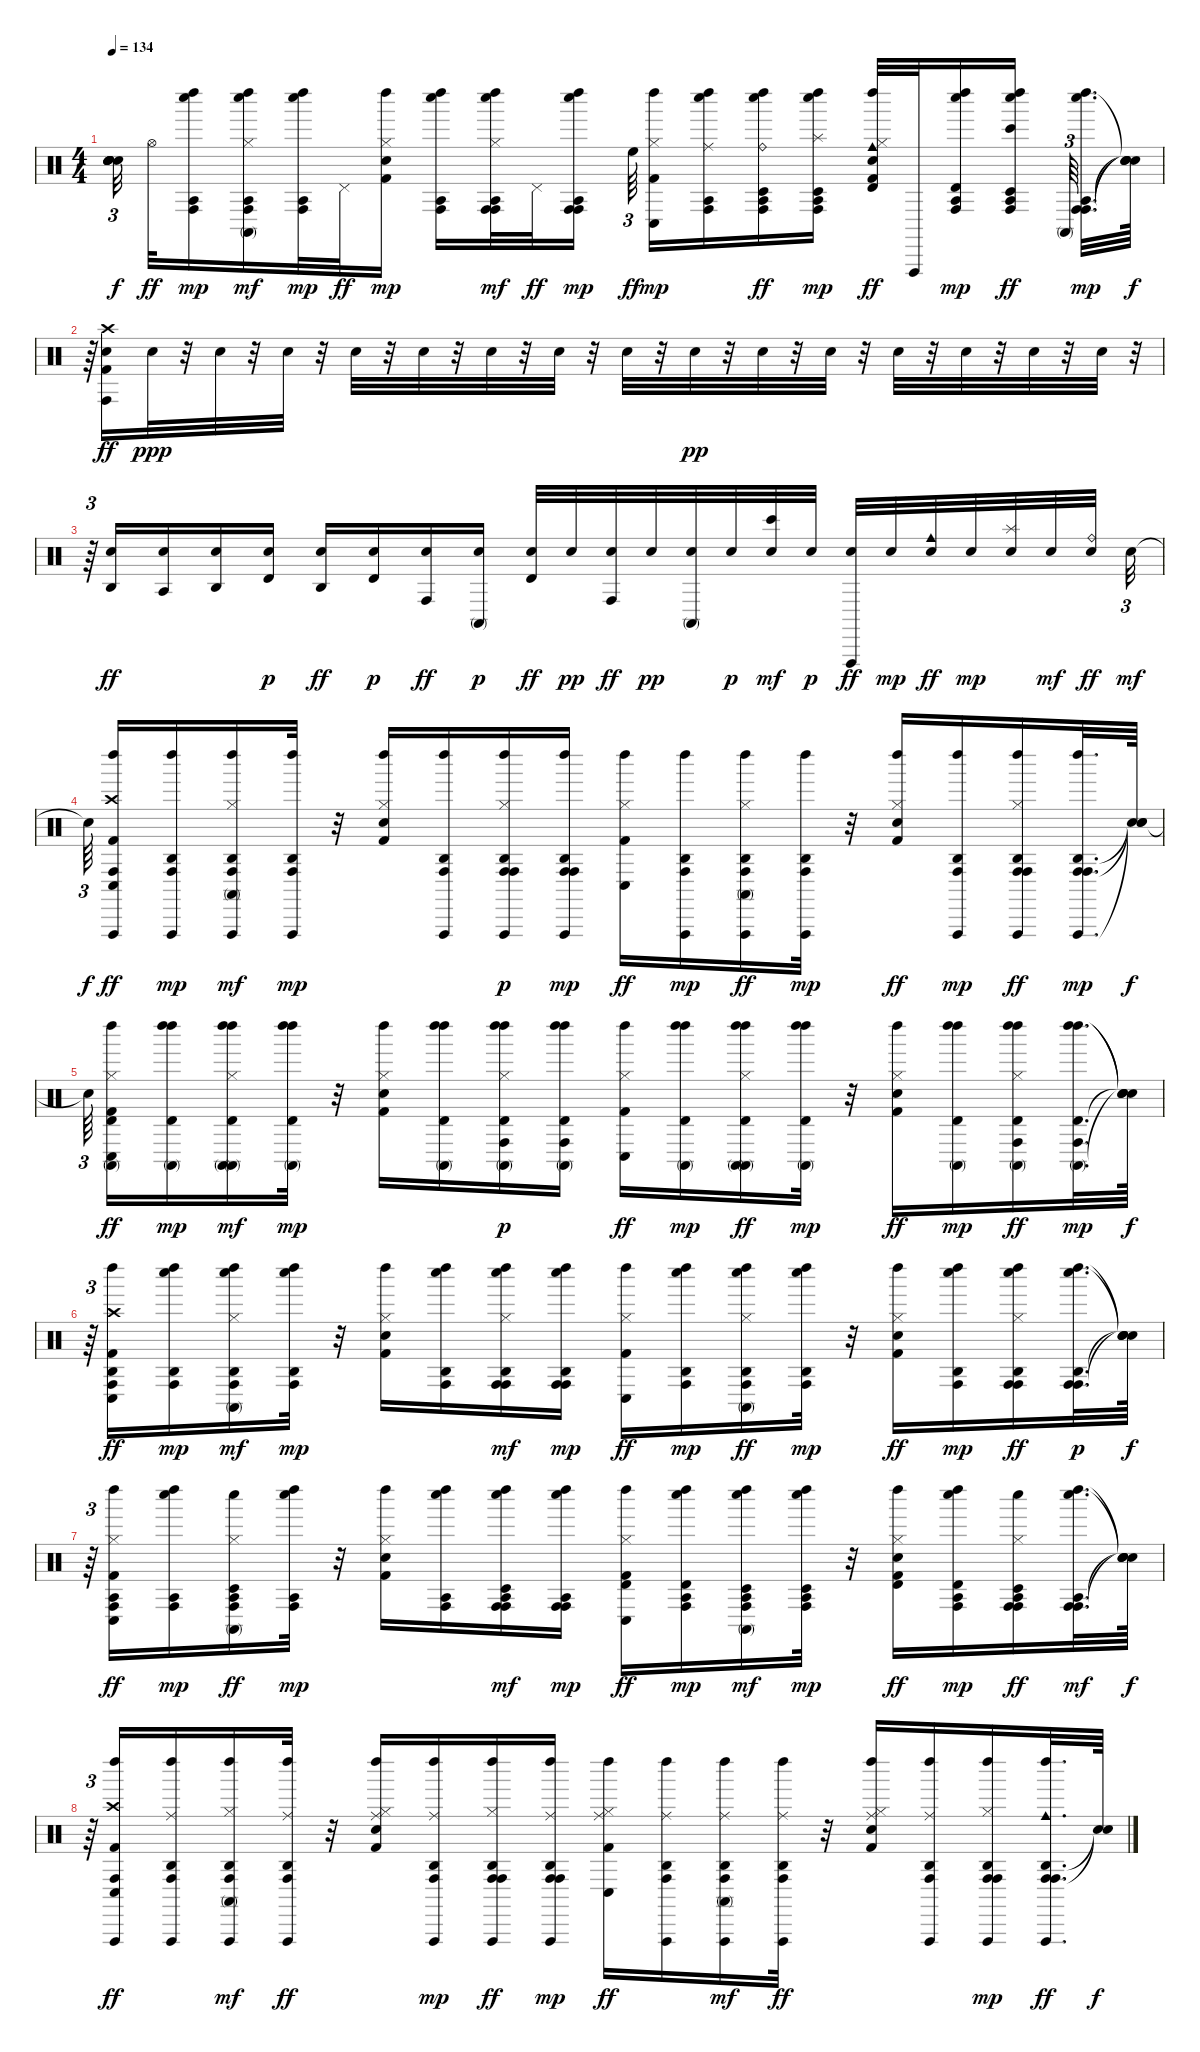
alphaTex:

\track "" {instrument percussion}
\staff {score}
\articulation defaults
\ts (4 4)
\tempo 134
\clef neutral
\ks c
("Snare (hit)"{t} "Snare (hit)"{t} "Snare (hit)"{t} "Snare (hit)"{t} "Snare (hit)"{t} "Snare (hit)"{t}).32{tu (3 2) dy f beam splitsecondary} "Hi-Hat (open)".32{dy ff} ("Whistle low (hit)" "Agogo tow (hit)" "Conga high (hit)" "Left Maraca (hit)").16{dy mp} ("Whistle low (hit)" "Agogo tow (hit)" "Conga high (hit)" "Hi-Hat (closed)" "Conga high (mute)" "Left Maraca (hit)").16{dy mf} ("Whistle low (hit)" "Agogo tow (hit)" "Conga high (hit)" "Left Maraca (hit)").32{dy mp} "Pedal Hi-Hat (hit)".32{dy ff} ("Kick (hit) 2" "Snare (hit) 2" "Hi-Hat (closed)" "Left Maraca (hit)").16{dy mp} ("Whistle low (hit)" "Agogo tow (hit)" "Conga high (hit)" "Left Maraca (hit)").16 ("Whistle low (hit)" "Agogo tow (hit)" "Conga high (hit)" "Hi-Hat (closed)" "Conga high (hit)" "Left Maraca (hit)").32{dy mf} "Pedal Hi-Hat (hit)".32{dy ff} ("Whistle low (hit)" "Agogo tow (hit)" "Conga high (hit)" "Left Maraca (hit)" "Conga high (hit)").16{dy mp beam splitsecondary} "High Floor Tom (hit)".64{tu (3 2) dy ff} ("Kick (hit) 2" "Hi-Hat (closed)" "Conga low (hit)" "Left Maraca (hit)").16{dy mp} ("Ride (middle)" "Whistle low (hit)" "Agogo tow (hit)" "Conga high (hit)" "Left Maraca (hit)").16 ("Ride (bell)" "Whistle low (hit)" "Agogo tow (hit)" "Conga high (hit)" "Left Maraca (hit)" "Timbale low (hit)").16{dy ff} ("Splash (hit)" "Whistle low (hit)" "Agogo tow (hit)" "Conga high (hit)" "Timbale low (hit)" "Left Maraca (hit)").16{dy mp} ("Cowbell medium (hit)" "Left Maraca (hit)" "Timbale high (hit)" "Hi-Hat (closed)" "Snare (hit) 2" "Kick (hit) 2").32{dy ff} "Vibraslap (hit)".32 ("Whistle low (hit)" "Agogo tow (hit)" "Conga high (hit)" "Timbale high (hit)" "Left Maraca (hit)").16{dy mp} ("Bongo High (hit)" "Whistle low (hit)" "Agogo tow (hit)" "Conga high (hit)" "Left Maraca (hit)" "Timbale low (hit)").16{dy ff beam splitsecondary} "Conga high (mute)".64{tu (3 2) beam splitsecondary} ("Whistle low (hit)" "Agogo tow (hit)" "Conga high (hit)" "Conga high (hit)" "Left Maraca (hit)").32{d dy mp} ("Snare (hit)"{t} "Snare (hit)"{t} "Snare (hit)"{t} "Snare (hit)"{t}).64{dy f} |
r.64{tu (3 2)} ("Crash high (hit)" "Snare (hit) 2" "Kick (hit) 2" "Conga high (hit)").16{dy ff} "Snare (hit) 2".32{dy ppp} r.32 "Snare (hit) 2".32 r.32 "Snare (hit) 2".32 r.32 "Snare (hit) 2".32 r.32 "Snare (hit) 2".32 r.32 "Snare (hit) 2".32 r.32 "Snare (hit) 2".32 r.32 "Snare (hit) 2".32 r.32 "Snare (hit) 2".32{dy pp} r.32 "Snare (hit) 2".32 r.32 "Snare (hit) 2".32 r.32 "Snare (hit) 2".32 r.32 "Snare (hit) 2".32 r.32 "Snare (hit) 2".32 r.32 "Snare (hit) 2".32 r.32{tu (3 2)} |
r.64{tu (3 2)} ("Snare (hit) 2" "Agogo high (hit)").16{dy ff} ("Snare (hit) 2" "Agogo tow (hit)").16 ("Snare (hit) 2" "Agogo high (hit)").16 ("Snare (hit) 2" "Timbale high (hit)").16{dy p} ("Snare (hit) 2" "Agogo high (hit)").16{dy ff} ("Snare (hit) 2" "Timbale high (hit)").16{dy p} ("Snare (hit) 2" "Conga high (hit)").16{dy ff} ("Snare (hit) 2" "Conga high (mute)").16{dy p} ("Snare (hit) 2" "Timbale high (hit)").32{dy ff} "Snare (hit) 2".32{dy pp} ("Snare (hit) 2" "Conga high (hit)").32{dy ff} "Snare (hit) 2".32{dy pp} ("Snare (hit) 2" "Conga high (mute)").32 "Snare (hit) 2".32{dy p} ("Snare (hit) 2" "Bongo High (hit)").32{dy mf} "Snare (hit) 2".32{dy p} ("Snare (hit) 2" "Vibraslap (hit)").32{dy ff} "Snare (hit) 2".32{dy mp} ("Snare (hit) 2" "Cowbell medium (hit)").32{dy ff} "Snare (hit) 2".32{dy mp} ("Snare (hit) 2" "Splash (hit)").32 "Snare (hit) 2".32{dy mf} ("Snare (hit) 2" "Ride (bell)").32{dy ff beam splitsecondary} "Snare (hit) 2".32{tu (3 2) dy mf} |
"Snare (hit)"{t}.64{tu (3 2) dy f beam splitsecondary} ("Left Maraca (hit)" "Conga low (hit)" "Crash high (hit)" "Kick (hit) 2" "Conga high (hit)" "Vibraslap (hit)").16{dy ff} ("Agogo high (hit)" "Conga high (hit)" "Vibraslap (hit)" "Left Maraca (hit)").16{dy mp} ("Agogo high (hit)" "Conga high (hit)" "Vibraslap (hit)" "Hi-Hat (closed)" "Conga high (mute)" "Left Maraca (hit)").16{dy mf} ("Agogo high (hit)" "Conga high (hit)" "Vibraslap (hit)" "Left Maraca (hit)").32{dy mp} r.32 ("Kick (hit) 2" "Snare (hit) 2" "Hi-Hat (closed)" "Left Maraca (hit)").16 ("Agogo high (hit)" "Conga high (hit)" "Vibraslap (hit)" "Left Maraca (hit)").16 ("Agogo high (hit)" "Conga high (hit)" "Vibraslap (hit)" "Hi-Hat (closed)" "Conga high (hit)" "Left Maraca (hit)").16{dy p} ("Agogo high (hit)" "Conga high (hit)" "Vibraslap (hit)" "Left Maraca (hit)" "Conga high (hit)").16{dy mp} ("Left Maraca (hit)" "Conga low (hit)" "Hi-Hat (closed)" "Kick (hit) 2").16{dy ff} ("Agogo high (hit)" "Conga high (hit)" "Vibraslap (hit)" "Left Maraca (hit)").16{dy mp} ("Agogo high (hit)" "Conga high (hit)" "Vibraslap (hit)" "Left Maraca (hit)" "Conga high (mute)" "Hi-Hat (closed)").16{dy ff} ("Agogo high (hit)" "Conga high (hit)" "Vibraslap (hit)" "Left Maraca (hit)").32{dy mp} r.32 ("Left Maraca (hit)" "Hi-Hat (closed)" "Snare (hit) 2" "Kick (hit) 2").16{dy ff} ("Agogo high (hit)" "Conga high (hit)" "Vibraslap (hit)" "Left Maraca (hit)").16{dy mp} ("Agogo high (hit)" "Conga high (hit)" "Vibraslap (hit)" "Left Maraca (hit)" "Conga high (hit)" "Hi-Hat (closed)").16{dy ff} ("Vibraslap (hit)" "Conga high (hit)" "Agogo high (hit)" "Conga high (hit)" "Left Maraca (hit)").32{d dy mp} ("Snare (hit)"{t} "Snare (hit)"{t} "Snare (hit)"{t}).64{dy f} |
"Snare (hit)"{t}.64{tu (3 2) beam splitsecondary} ("Kick (hit) 2" "Hi-Hat (closed)" "Conga low (hit)" "Left Maraca (hit)" "Timbale high (hit)" "Conga high (mute)").16{dy ff} ("Left Maraca (hit)" "Timbale high (hit)" "Conga high (mute)" "Left Maraca (hit)").16{dy mp} ("Left Maraca (hit)" "Timbale high (hit)" "Conga high (mute)" "Hi-Hat (closed)" "Conga high (mute)" "Left Maraca (hit)").16{dy mf} ("Left Maraca (hit)" "Timbale high (hit)" "Conga high (mute)" "Left Maraca (hit)").32{dy mp} r.32 ("Kick (hit) 2" "Snare (hit) 2" "Hi-Hat (closed)" "Left Maraca (hit)").16 ("Left Maraca (hit)" "Timbale high (hit)" "Conga high (mute)" "Left Maraca (hit)").16 ("Left Maraca (hit)" "Timbale high (hit)" "Conga high (mute)" "Hi-Hat (closed)" "Conga high (hit)" "Left Maraca (hit)").16{dy p} ("Left Maraca (hit)" "Timbale high (hit)" "Conga high (mute)" "Left Maraca (hit)" "Conga high (hit)").16 ("Left Maraca (hit)" "Conga low (hit)" "Hi-Hat (closed)" "Kick (hit) 2").16{dy ff} ("Left Maraca (hit)" "Timbale high (hit)" "Conga high (mute)" "Left Maraca (hit)").16{dy mp} ("Left Maraca (hit)" "Timbale high (hit)" "Conga high (mute)" "Left Maraca (hit)" "Conga high (mute)" "Hi-Hat (closed)").16{dy ff} ("Left Maraca (hit)" "Timbale high (hit)" "Conga high (mute)" "Left Maraca (hit)").32{dy mp} r.32 ("Left Maraca (hit)" "Hi-Hat (closed)" "Snare (hit) 2" "Kick (hit) 2").16{dy ff} ("Left Maraca (hit)" "Timbale high (hit)" "Conga high (mute)" "Left Maraca (hit)").16{dy mp} ("Left Maraca (hit)" "Timbale high (hit)" "Conga high (mute)" "Left Maraca (hit)" "Conga high (hit)" "Hi-Hat (closed)").16{dy ff} ("Left Maraca (hit)" "Timbale high (hit)" "Conga high (mute)" "Left Maraca (hit)" "Conga high (hit)").32{d dy mp} ("Snare (hit)"{t} "Snare (hit)"{t} "Snare (hit)"{t} "Snare (hit)"{t}).64{dy f} |
r.64{tu (3 2)} ("Kick (hit) 2" "Crash high (hit)" "Conga low (hit)" "Left Maraca (hit)" "Agogo high (hit)" "Conga high (hit)").16{dy ff} ("Whistle low (hit)" "Agogo high (hit)" "Conga high (hit)" "Left Maraca (hit)").16{dy mp} ("Whistle low (hit)" "Agogo high (hit)" "Conga high (hit)" "Hi-Hat (closed)" "Conga high (mute)" "Left Maraca (hit)").16{dy mf} ("Whistle low (hit)" "Agogo high (hit)" "Conga high (hit)" "Left Maraca (hit)").32{dy mp} r.32 ("Kick (hit) 2" "Snare (hit) 2" "Hi-Hat (closed)" "Left Maraca (hit)").16 ("Whistle low (hit)" "Agogo high (hit)" "Conga high (hit)" "Left Maraca (hit)").16 ("Conga high (hit)" "Agogo high (hit)" "Whistle low (hit)" "Hi-Hat (closed)" "Conga high (hit)" "Left Maraca (hit)").16{dy mf} ("Whistle low (hit)" "Agogo high (hit)" "Conga high (hit)" "Conga high (hit)" "Left Maraca (hit)").16{dy mp} ("Left Maraca (hit)" "Conga low (hit)" "Hi-Hat (closed)" "Kick (hit) 2").16{dy ff} ("Whistle low (hit)" "Agogo high (hit)" "Conga high (hit)" "Left Maraca (hit)").16{dy mp} ("Whistle low (hit)" "Agogo high (hit)" "Conga high (hit)" "Left Maraca (hit)" "Conga high (mute)" "Hi-Hat (closed)").16{dy ff} ("Whistle low (hit)" "Agogo high (hit)" "Conga high (hit)" "Left Maraca (hit)").32{dy mp} r.32 ("Left Maraca (hit)" "Hi-Hat (closed)" "Snare (hit) 2" "Kick (hit) 2").16{dy ff} ("Whistle low (hit)" "Agogo high (hit)" "Conga high (hit)" "Left Maraca (hit)").16{dy mp} ("Whistle low (hit)" "Agogo high (hit)" "Conga high (hit)" "Left Maraca (hit)" "Conga high (hit)" "Hi-Hat (closed)").16{dy ff} ("Whistle low (hit)" "Agogo high (hit)" "Conga high (hit)" "Left Maraca (hit)" "Conga high (hit)").32{d dy p} ("Snare (hit)"{t} "Snare (hit)"{t} "Snare (hit)"{t} "Snare (hit)"{t}).64{dy f} |
r.64{tu (3 2)} ("Kick (hit) 2" "Hi-Hat (closed)" "Conga low (hit)" "Left Maraca (hit)" "Agogo tow (hit)" "Conga high (hit)").16{dy ff} ("Whistle low (hit)" "Agogo tow (hit)" "Conga high (hit)" "Left Maraca (hit)").16{dy mp} ("Whistle low (hit)" "Agogo tow (hit)" "Conga high (hit)" "Hi-Hat (closed)" "Conga high (mute)" "Timbale low (hit)").16{dy ff} ("Whistle low (hit)" "Agogo tow (hit)" "Conga high (hit)" "Left Maraca (hit)").32{dy mp} r.32 ("Kick (hit) 2" "Snare (hit) 2" "Hi-Hat (closed)" "Left Maraca (hit)").16 ("Whistle low (hit)" "Agogo tow (hit)" "Conga high (hit)" "Left Maraca (hit)").16 ("Whistle low (hit)" "Agogo tow (hit)" "Conga high (hit)" "Left Maraca (hit)" "Timbale low (hit)" "Conga high (hit)").16{dy mf} ("Whistle low (hit)" "Agogo tow (hit)" "Conga high (hit)" "Conga high (hit)" "Left Maraca (hit)").16{dy mp} ("Left Maraca (hit)" "Timbale high (hit)" "Conga low (hit)" "Hi-Hat (closed)" "Kick (hit) 2").16{dy ff} ("Whistle low (hit)" "Agogo tow (hit)" "Conga high (hit)" "Timbale high (hit)" "Left Maraca (hit)").16{dy mp} ("Whistle low (hit)" "Agogo tow (hit)" "Conga high (hit)" "Left Maraca (hit)" "Timbale low (hit)" "Conga high (mute)").16{dy mf} ("Whistle low (hit)" "Agogo tow (hit)" "Conga high (hit)" "Timbale low (hit)" "Left Maraca (hit)").32{dy mp} r.32 ("Left Maraca (hit)" "Timbale high (hit)" "Hi-Hat (closed)" "Snare (hit) 2" "Kick (hit) 2").16{dy ff} ("Whistle low (hit)" "Agogo tow (hit)" "Conga high (hit)" "Timbale high (hit)" "Left Maraca (hit)").16{dy mp} ("Whistle low (hit)" "Agogo tow (hit)" "Conga high (hit)" "Hi-Hat (closed)" "Conga high (hit)" "Timbale low (hit)").16{dy ff} ("Whistle low (hit)" "Agogo tow (hit)" "Conga high (hit)" "Left Maraca (hit)" "Conga high (hit)").32{d dy mf} ("Snare (hit)"{t} "Snare (hit)"{t} "Snare (hit)"{t} "Snare (hit)"{t}).64{dy f} |
r.64{tu (3 2)} ("Kick (hit) 2" "Crash high (hit)" "Conga low (hit)" "Left Maraca (hit)" "Conga high (hit)" "Vibraslap (hit)").16{dy ff} ("Agogo high (hit)" "Conga high (hit)" "Vibraslap (hit)" "Left Maraca (hit)" "Ride (middle)").16 ("Agogo high (hit)" "Conga high (hit)" "Vibraslap (hit)" "Hi-Hat (closed)" "Conga high (mute)" "Left Maraca (hit)").16{dy mf} ("Agogo high (hit)" "Conga high (hit)" "Vibraslap (hit)" "Left Maraca (hit)" "Ride (middle)").32{dy ff} r.32 ("Kick (hit) 2" "Snare (hit) 2" "Hi-Hat (closed)" "Left Maraca (hit)" "Ride (middle)").16 ("Ride (middle)" "Agogo high (hit)" "Conga high (hit)" "Vibraslap (hit)" "Left Maraca (hit)").16{dy mp} ("Agogo high (hit)" "Conga high (hit)" "Vibraslap (hit)" "Left Maraca (hit)" "Conga high (hit)" "Hi-Hat (closed)").16{dy ff} ("Ride (middle)" "Agogo high (hit)" "Conga high (hit)" "Vibraslap (hit)" "Conga high (hit)" "Left Maraca (hit)").16{dy mp} ("Left Maraca (hit)" "Conga low (hit)" "Hi-Hat (closed)" "Kick (hit) 2" "Ride (middle)").16{dy ff} ("Agogo high (hit)" "Conga high (hit)" "Vibraslap (hit)" "Left Maraca (hit)" "Ride (middle)").16 ("Ride (middle)" "Agogo high (hit)" "Conga high (hit)" "Vibraslap (hit)" "Left Maraca (hit)" "Conga high (mute)").16{dy mf} ("Agogo high (hit)" "Conga high (hit)" "Vibraslap (hit)" "Left Maraca (hit)" "Ride (middle)").32{dy ff} r.32 ("Ride (middle)" "Left Maraca (hit)" "Hi-Hat (closed)" "Snare (hit) 2" "Kick (hit) 2").16 ("Agogo high (hit)" "Conga high (hit)" "Vibraslap (hit)" "Left Maraca (hit)" "Ride (middle)").16 ("Agogo high (hit)" "Conga high (hit)" "Vibraslap (hit)" "Hi-Hat (closed)" "Conga high (hit)" "Left Maraca (hit)").16{dy mp} ("Agogo high (hit)" "Conga high (hit)" "Vibraslap (hit)" "Left Maraca (hit)" "Conga high (hit)" "Cowbell medium (hit)").32{d dy ff} ("Snare (hit)"{t} "Snare (hit)"{t}).64{dy f}
